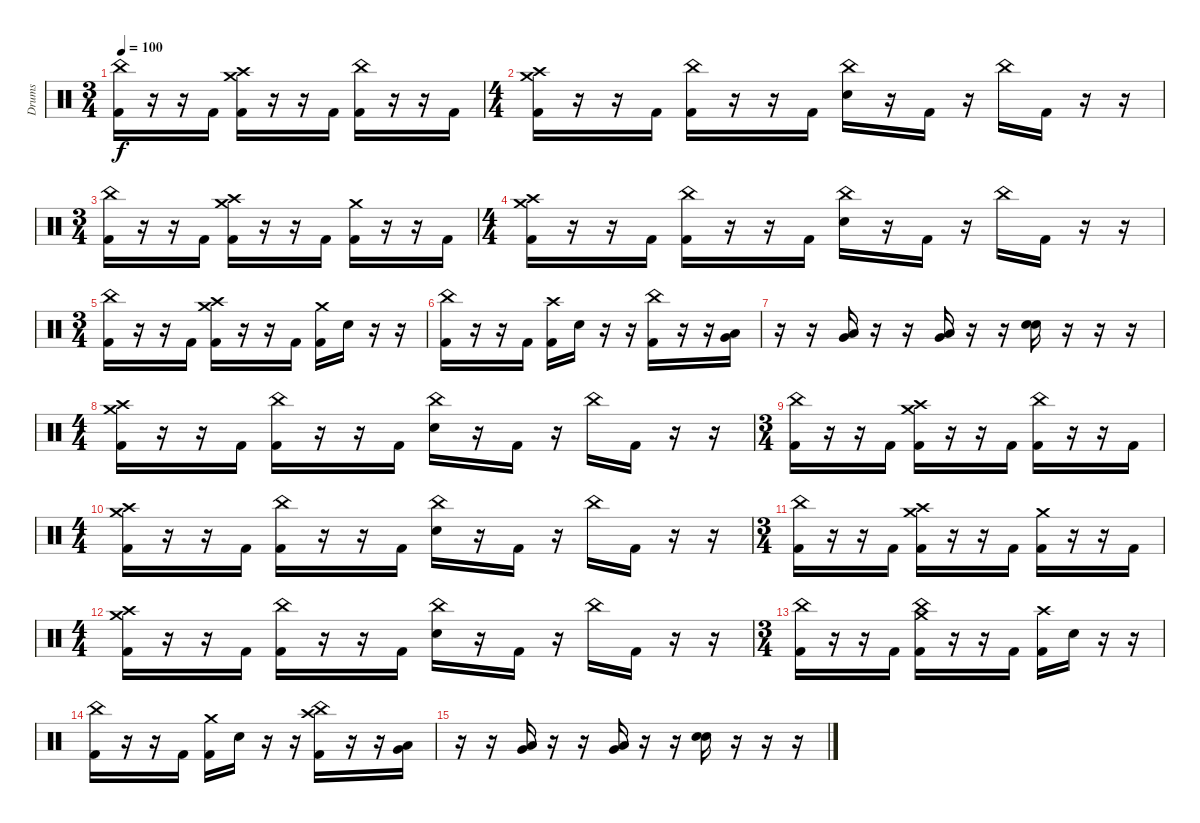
\track ("Drums" "Drums") {instrument percussion}
\staff {score}
\articulation defaults
\ts (3 4)
\tempo 100
\clef neutral
\ks c
("China (hit)" "Kick (hit) 2").16{dy f} r.16 r.16 "Kick (hit) 2".16 ("Crash medium (hit)" "Crash high (hit)" "Kick (hit) 2").16 r.16 r.16 "Kick (hit) 2".16 ("China (hit)" "Kick (hit) 2").16 r.16 r.16 "Kick (hit) 2".16 |
\ts (4 4)
("Crash medium (hit)" "Crash high (hit)" "Kick (hit) 2").16 r.16 r.16 "Kick (hit) 2".16 ("China (hit)" "Kick (hit) 2").16 r.16 r.16 "Kick (hit) 2".16 ("China (hit)" "Snare (hit) 2").16 r.16 "Kick (hit) 2".16 r.16 "China (hit)".16 "Kick (hit) 2".16 r.16 r.16 |
\ts (3 4)
("China (hit)" "Kick (hit) 2").16 r.16 r.16 "Kick (hit) 2".16 ("Crash medium (hit)" "Crash high (hit)" "Kick (hit) 2").16 r.16 r.16 "Kick (hit) 2".16 ("Crash medium (hit)" "Kick (hit) 2").16 r.16 r.16 "Kick (hit) 2".16 |
\ts (4 4)
("Crash medium (hit)" "Crash high (hit)" "Kick (hit) 2").16 r.16 r.16 "Kick (hit) 2".16 ("China (hit)" "Kick (hit) 2").16 r.16 r.16 "Kick (hit) 2".16 ("China (hit)" "Snare (hit) 2").16 r.16 "Kick (hit) 2".16 r.16 "China (hit)".16 "Kick (hit) 2".16 r.16 r.16 |
\ts (3 4)
("China (hit)" "Kick (hit) 2").16 r.16 r.16 "Kick (hit) 2".16 ("Crash medium (hit)" "Crash high (hit)" "Kick (hit) 2").16 r.16 r.16 "Kick (hit) 2".16 ("Crash medium (hit)" "Kick (hit) 2").16 "Snare (hit) 2".16 r.16 r.16 |
("China (hit)" "Kick (hit) 2").16 r.16 r.16 "Kick (hit) 2".16 ("Crash high (hit)" "Kick (hit) 2").16 "Snare (hit) 2".16 r.16 r.16 ("China (hit)" "Kick (hit) 2").16 r.16 r.16 ("Low Tom (hit)" "Very Low Tom (hit)").16{bu 60} |
r.16 r.16 ("Low Tom (hit)" "Very Low Tom (hit)").16{bu 60} r.16 r.16 ("Low Tom (hit)" "Very Low Tom (hit)").16{bu 60} r.16 r.16 ("Snare (hit) 2" "Snare (hit) 2").16{bu 60} r.16 r.16 r.16 |
\ts (4 4)
("Crash medium (hit)" "Crash high (hit)" "Kick (hit) 2").16 r.16 r.16 "Kick (hit) 2".16 ("China (hit)" "Kick (hit) 2").16 r.16 r.16 "Kick (hit) 2".16 ("China (hit)" "Snare (hit) 2").16 r.16 "Kick (hit) 2".16 r.16 "China (hit)".16 "Kick (hit) 2".16 r.16 r.16 |
\ts (3 4)
("China (hit)" "Kick (hit) 2").16 r.16 r.16 "Kick (hit) 2".16 ("Crash medium (hit)" "Crash high (hit)" "Kick (hit) 2").16 r.16 r.16 "Kick (hit) 2".16 ("China (hit)" "Kick (hit) 2").16 r.16 r.16 "Kick (hit) 2".16 |
\ts (4 4)
("Crash medium (hit)" "Crash high (hit)" "Kick (hit) 2").16 r.16 r.16 "Kick (hit) 2".16 ("China (hit)" "Kick (hit) 2").16 r.16 r.16 "Kick (hit) 2".16 ("China (hit)" "Snare (hit) 2").16 r.16 "Kick (hit) 2".16 r.16 "China (hit)".16 "Kick (hit) 2".16 r.16 r.16 |
\ts (3 4)
("China (hit)" "Kick (hit) 2").16 r.16 r.16 "Kick (hit) 2".16 ("Crash medium (hit)" "Crash high (hit)" "Kick (hit) 2").16 r.16 r.16 "Kick (hit) 2".16 ("Crash medium (hit)" "Kick (hit) 2").16 r.16 r.16 "Kick (hit) 2".16 |
\ts (4 4)
("Crash medium (hit)" "Crash high (hit)" "Kick (hit) 2").16 r.16 r.16 "Kick (hit) 2".16 ("China (hit)" "Kick (hit) 2").16 r.16 r.16 "Kick (hit) 2".16 ("China (hit)" "Snare (hit) 2").16 r.16 "Kick (hit) 2".16 r.16 "China (hit)".16 "Kick (hit) 2".16 r.16 r.16 |
\ts (3 4)
("China (hit)" "Kick (hit) 2").16 r.16 r.16 "Kick (hit) 2".16 ("China (hit)" "Crash medium (hit)" "Kick (hit) 2").16 r.16 r.16 "Kick (hit) 2".16 ("Crash high (hit)" "Kick (hit) 2").16 "Snare (hit) 2".16 r.16 r.16 |
("China (hit)" "Kick (hit) 2").16 r.16 r.16 "Kick (hit) 2".16 ("Crash medium (hit)" "Kick (hit) 2").16 "Snare (hit) 2".16 r.16 r.16 ("China (hit)" "Crash high (hit)" "Kick (hit) 2").16 r.16 r.16 ("Low Tom (hit)" "Very Low Tom (hit)").16{bu 60} |
r.16 r.16 ("Low Tom (hit)" "Very Low Tom (hit)").16{bu 60} r.16 r.16 ("Low Tom (hit)" "Very Low Tom (hit)").16{bu 60} r.16 r.16 ("Snare (hit) 2" "Snare (hit) 2").16{bu 60} r.16 r.16 r.16
